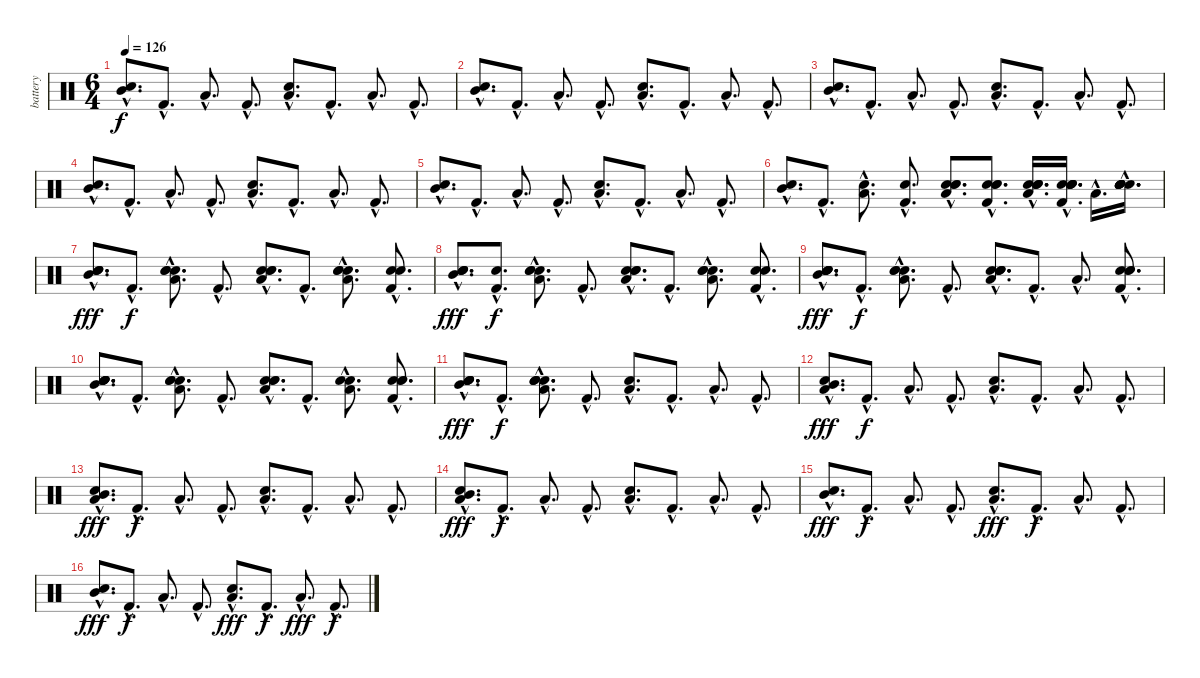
\track ("battery" "battery") {instrument percussion}
\staff {score}
\articulation defaults
\ts (6 4)
\tempo 126
\clef neutral
\ks c
("Snare (hit) 2"{hac} "Mid Tom (hit)"{hac}).8{d dy f} "Kick (hit) 2"{hac}.8{d} "Low Tom (hit)"{hac}.8{d} "Kick (hit) 2"{hac}.8{d} ("Snare (hit) 2"{hac} "Low Tom (hit)"{hac}).8{d} "Kick (hit) 2"{hac}.8{d} "Low Tom (hit)"{hac}.8{d} "Kick (hit) 2"{hac}.8{d} |
("Snare (hit) 2"{hac} "Mid Tom (hit)"{hac}).8{d} "Kick (hit) 2"{hac}.8{d} "Low Tom (hit)"{hac}.8{d} "Kick (hit) 2"{hac}.8{d} ("Snare (hit) 2"{hac} "Low Tom (hit)"{hac}).8{d} "Kick (hit) 2"{hac}.8{d} "Low Tom (hit)"{hac}.8{d} "Kick (hit) 2"{hac}.8{d} |
("Snare (hit) 2"{hac} "Mid Tom (hit)"{hac}).8{d} "Kick (hit) 2"{hac}.8{d} "Low Tom (hit)"{hac}.8{d} "Kick (hit) 2"{hac}.8{d} ("Snare (hit) 2"{hac} "Low Tom (hit)"{hac}).8{d} "Kick (hit) 2"{hac}.8{d} "Low Tom (hit)"{hac}.8{d} "Kick (hit) 2"{hac}.8{d} |
("Snare (hit) 2"{hac} "Mid Tom (hit)"{hac}).8{d} "Kick (hit) 2"{hac}.8{d} "Low Tom (hit)"{hac}.8{d} "Kick (hit) 2"{hac}.8{d} ("Snare (hit) 2"{hac} "Low Tom (hit)"{hac}).8{d} "Kick (hit) 2"{hac}.8{d} "Low Tom (hit)"{hac}.8{d} "Kick (hit) 2"{hac}.8{d} |
("Snare (hit) 2"{hac} "Mid Tom (hit)"{hac}).8{d} "Kick (hit) 2"{hac}.8{d} "Low Tom (hit)"{hac}.8{d} "Kick (hit) 2"{hac}.8{d} ("Snare (hit) 2"{hac} "Low Tom (hit)"{hac}).8{d} "Kick (hit) 2"{hac}.8{d} "Low Tom (hit)"{hac}.8{d} "Kick (hit) 2"{hac}.8{d} |
("Snare (hit) 2"{hac} "Mid Tom (hit)"{hac}).8{d} "Kick (hit) 2"{hac}.8{d} ("Snare (hit) 2"{hac} "Low Tom (hit)"{hac}).8{d} ("Snare (hit) 2"{hac} "Kick (hit) 2"{hac}).8{d} ("Snare (hit) 2"{hac} "Snare (hit) 2"{hac} "Snare (hit) 2"{hac} "Low Tom (hit)"{hac}).8{d} ("Snare (hit) 2"{hac} "Snare (hit) 2"{hac} "Kick (hit) 2"{hac} "Snare (hit) 2"{hac}).8{d} ("Snare (hit) 2"{hac} "Snare (hit) 2"{hac} "Low Tom (hit)"{hac} "Snare (hit) 2"{hac} "Snare (hit) 2"{hac}).16{d} ("Snare (hit) 2"{hac} "Snare (hit) 2"{hac} "Kick (hit) 2"{hac} "Snare (hit) 2"{hac} "Snare (hit) 2"{hac} "Snare (hit) 2"{hac}).16{d} "Low Tom (hit)"{hac}.16{d} ("Snare (hit) 2"{hac} "Snare (hit) 2"{hac} "Snare (hit) 2"{hac} "Snare (hit) 2"{hac} "Snare (hit) 2"{hac} "Snare (hit) 2"{hac}).16{d} |
("Snare (hit) 2"{hac} "Snare (hit) 2"{hac} "Mid Tom (hit)"{hac} "Snare (hit) 2"{hac}).8{d dy fff} "Kick (hit) 2"{hac}.8{d dy f} ("Snare (hit) 2"{hac} "Low Tom (hit)"{hac} "Snare (hit) 2"{hac} "Snare (hit) 2"{hac}).8{d} "Kick (hit) 2"{hac}.8{d} ("Snare (hit) 2"{hac} "Snare (hit) 2"{hac} "Snare (hit) 2"{hac} "Low Tom (hit)"{hac}).8{d} "Kick (hit) 2"{hac}.8{d} ("Snare (hit) 2"{hac} "Low Tom (hit)"{hac} "Snare (hit) 2"{hac} "Snare (hit) 2"{hac}).8{d} ("Snare (hit) 2"{hac} "Kick (hit) 2"{hac} "Snare (hit) 2"{hac}).8{d} |
("Snare (hit) 2"{hac} "Snare (hit) 2"{hac} "Mid Tom (hit)"{hac} "Snare (hit) 2"{hac}).8{d dy fff} ("Snare (hit) 2"{hac} "Kick (hit) 2"{hac}).8{d dy f} ("Snare (hit) 2"{hac} "Low Tom (hit)"{hac} "Snare (hit) 2"{hac} "Snare (hit) 2"{hac}).8{d} "Kick (hit) 2"{hac}.8{d} ("Snare (hit) 2"{hac} "Snare (hit) 2"{hac} "Low Tom (hit)"{hac} "Snare (hit) 2"{hac}).8{d} "Kick (hit) 2"{hac}.8{d} ("Snare (hit) 2"{hac} "Snare (hit) 2"{hac} "Low Tom (hit)"{hac} "Snare (hit) 2"{hac}).8{d} ("Snare (hit) 2"{hac} "Kick (hit) 2"{hac} "Snare (hit) 2"{hac}).8{d} |
("Snare (hit) 2"{hac} "Snare (hit) 2"{hac} "Mid Tom (hit)"{hac} "Snare (hit) 2"{hac} "Snare (hit) 2"{hac} "Snare (hit) 2"{hac}).8{d dy fff} "Kick (hit) 2"{hac}.8{d dy f} ("Snare (hit) 2"{hac} "Snare (hit) 2"{hac} "Low Tom (hit)"{hac} "Snare (hit) 2"{hac}).8{d} "Kick (hit) 2"{hac}.8{d} ("Snare (hit) 2"{hac} "Snare (hit) 2"{hac} "Low Tom (hit)"{hac} "Snare (hit) 2"{hac} "Snare (hit) 2"{hac}).8{d} "Kick (hit) 2"{hac}.8{d} "Low Tom (hit)"{hac}.8{d} ("Snare (hit) 2"{hac} "Kick (hit) 2"{hac} "Snare (hit) 2"{hac} "Snare (hit) 2"{hac}).8{d} |
("Snare (hit) 2"{hac} "Snare (hit) 2"{hac} "Mid Tom (hit)"{hac} "Snare (hit) 2"{hac} "Snare (hit) 2"{hac} "Snare (hit) 2"{hac}).8{d} "Kick (hit) 2"{hac}.8{d} ("Snare (hit) 2"{hac} "Snare (hit) 2"{hac} "Low Tom (hit)"{hac} "Snare (hit) 2"{hac}).8{d} "Kick (hit) 2"{hac}.8{d} ("Snare (hit) 2"{hac} "Snare (hit) 2"{hac} "Low Tom (hit)"{hac} "Snare (hit) 2"{hac}).8{d} "Kick (hit) 2"{hac}.8{d} ("Snare (hit) 2"{hac} "Snare (hit) 2"{hac} "Low Tom (hit)"{hac}).8{d} ("Snare (hit) 2"{hac} "Kick (hit) 2"{hac} "Snare (hit) 2"{hac} "Snare (hit) 2"{hac}).8{d} |
("Snare (hit) 2"{hac} "Snare (hit) 2"{hac} "Mid Tom (hit)"{hac} "Snare (hit) 2"{hac} "Snare (hit) 2"{hac}).8{d dy fff} "Kick (hit) 2"{hac}.8{d dy f} ("Snare (hit) 2"{hac} "Snare (hit) 2"{hac} "Low Tom (hit)"{hac} "Snare (hit) 2"{hac} "Snare (hit) 2"{hac}).8{d} "Kick (hit) 2"{hac}.8{d} ("Snare (hit) 2"{hac} "Low Tom (hit)"{hac}).8{d} "Kick (hit) 2"{hac}.8{d} "Low Tom (hit)"{hac}.8{d} "Kick (hit) 2"{hac}.8{d} |
("Snare (hit) 2"{hac} "Mid Tom (hit)"{hac} "Low Tom (hit)"{hac}).8{d dy fff} "Kick (hit) 2"{hac}.8{d dy f} "Low Tom (hit)"{hac}.8{d} "Kick (hit) 2"{hac}.8{d} ("Snare (hit) 2"{hac} "Low Tom (hit)"{hac}).8{d} "Kick (hit) 2"{hac}.8{d} "Low Tom (hit)"{hac}.8{d} "Kick (hit) 2"{hac}.8{d} |
("Snare (hit) 2"{hac} "Mid Tom (hit)"{hac} "Low Tom (hit)"{hac}).8{d dy fff} "Kick (hit) 2"{hac}.8{d dy f} "Low Tom (hit)"{hac}.8{d} "Kick (hit) 2"{hac}.8{d} ("Snare (hit) 2"{hac} "Low Tom (hit)"{hac}).8{d} "Kick (hit) 2"{hac}.8{d} "Low Tom (hit)"{hac}.8{d} "Kick (hit) 2"{hac}.8{d} |
("Snare (hit) 2"{hac} "Mid Tom (hit)"{hac} "Low Tom (hit)"{hac}).8{d dy fff} "Kick (hit) 2"{hac}.8{d dy f} "Low Tom (hit)"{hac}.8{d} "Kick (hit) 2"{hac}.8{d} ("Snare (hit) 2"{hac} "Low Tom (hit)"{hac}).8{d} "Kick (hit) 2"{hac}.8{d} "Low Tom (hit)"{hac}.8{d} "Kick (hit) 2"{hac}.8{d} |
("Snare (hit) 2"{hac} "Mid Tom (hit)"{hac}).8{d dy fff} "Kick (hit) 2"{hac}.8{d dy f} "Low Tom (hit)"{hac}.8{d} "Kick (hit) 2"{hac}.8{d} ("Snare (hit) 2"{hac} "Low Tom (hit)"{hac}).8{d dy fff} "Kick (hit) 2"{hac}.8{d dy f} "Low Tom (hit)"{hac}.8{d} "Kick (hit) 2"{hac}.8{d} |
("Snare (hit) 2"{hac} "Mid Tom (hit)"{hac}).8{d dy fff} "Kick (hit) 2"{hac}.8{d dy f} "Low Tom (hit)"{hac}.8{d} "Kick (hit) 2"{hac}.8{d} ("Snare (hit) 2"{hac} "Low Tom (hit)"{hac}).8{d dy fff} "Kick (hit) 2"{hac}.8{d dy f} "Low Tom (hit)"{hac}.8{d dy fff} "Kick (hit) 2"{hac}.8{d dy f}
